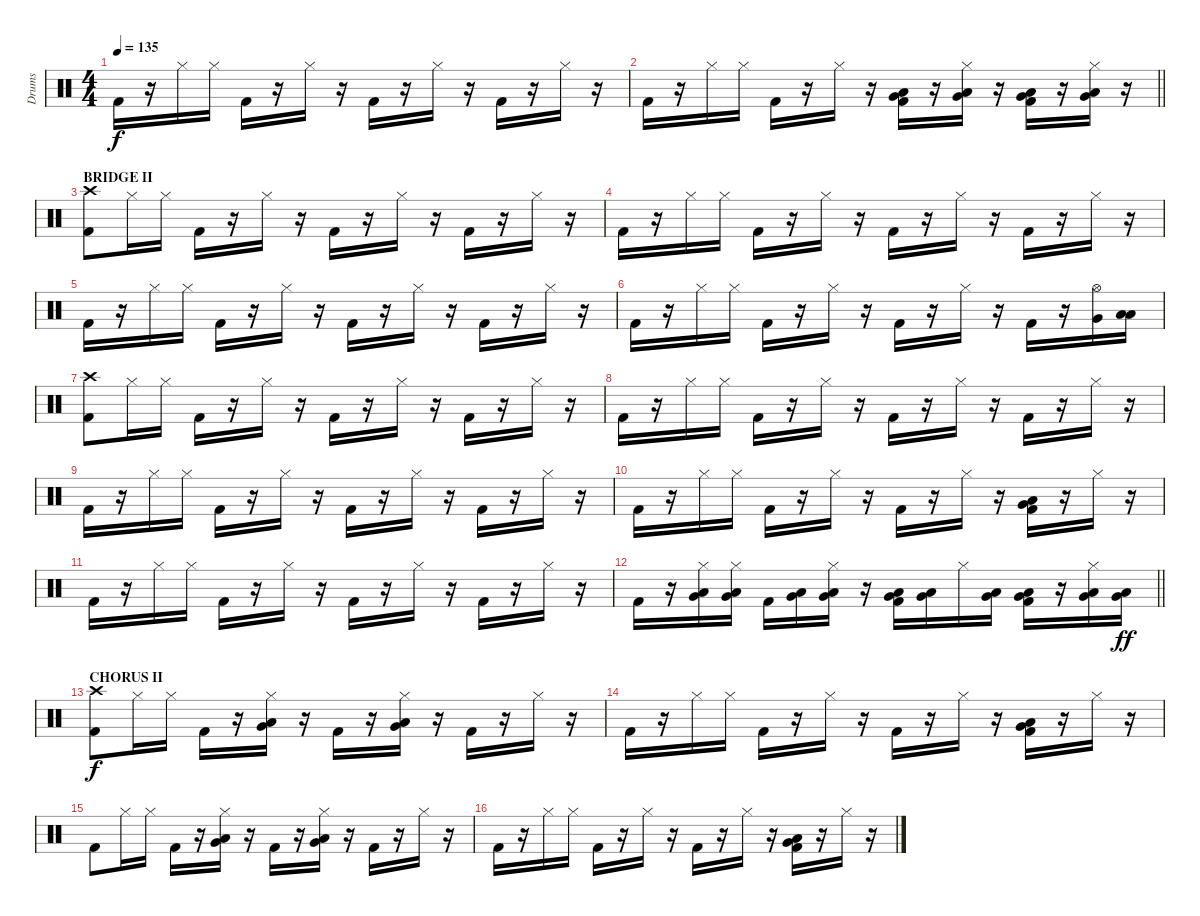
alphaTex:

\track ("Drums" "Drums") {instrument percussion}
\staff {score}
\articulation defaults
\ts (4 4)
\tempo 135
\clef neutral
\ks c "Kick (hit) 2".16{dy f}
r.16 "Hi-Hat (closed)".16 "Hi-Hat (closed)".16 "Kick (hit) 2".16 r.16 "Hi-Hat (closed)".16 r.16 "Kick (hit) 2".16 r.16 "Hi-Hat (closed)".16 r.16 "Kick (hit) 2".16 r.16 "Hi-Hat (closed)".16 r.16 |
\barLineRight lightlight "Kick (hit) 2".16
r.16 "Hi-Hat (closed)".16 "Hi-Hat (closed)".16 "Kick (hit) 2".16 r.16 "Hi-Hat (closed)".16 r.16 ("Kick (hit) 2" "Very Low Tom (hit)" "Low Tom (hit)").16 r.16 ("Hi-Hat (closed)" "Low Tom (hit)" "Very Low Tom (hit)").16 r.16 ("Kick (hit) 2" "Very Low Tom (hit)" "Low Tom (hit)").16 r.16 ("Hi-Hat (closed)" "Low Tom (hit)" "Very Low Tom (hit)").16 r.16 |
\section ("" "BRIDGE II")
("Kick (hit) 2" "Crash high (hit)").8 "Hi-Hat (closed)".16 "Hi-Hat (closed)".16 "Kick (hit) 2".16 r.16 "Hi-Hat (closed)".16 r.16 "Kick (hit) 2".16 r.16 "Hi-Hat (closed)".16 r.16 "Kick (hit) 2".16 r.16 "Hi-Hat (closed)".16 r.16 |
"Kick (hit) 2".16 r.16 "Hi-Hat (closed)".16 "Hi-Hat (closed)".16 "Kick (hit) 2".16 r.16 "Hi-Hat (closed)".16 r.16 "Kick (hit) 2".16 r.16 "Hi-Hat (closed)".16 r.16 "Kick (hit) 2".16 r.16 "Hi-Hat (closed)".16 r.16 |
"Kick (hit) 2".16 r.16 "Hi-Hat (closed)".16 "Hi-Hat (closed)".16 "Kick (hit) 2".16 r.16 "Hi-Hat (closed)".16 r.16 "Kick (hit) 2".16 r.16 "Hi-Hat (closed)".16 r.16 "Kick (hit) 2".16 r.16 "Hi-Hat (closed)".16 r.16 |
"Kick (hit) 2".16 r.16 "Hi-Hat (closed)".16 "Hi-Hat (closed)".16 "Kick (hit) 2".16 r.16 "Hi-Hat (closed)".16 r.16 "Kick (hit) 2".16 r.16 "Hi-Hat (closed)".16 r.16 "Kick (hit) 2".16 r.16 ("Hi-Hat (open)" "Very Low Tom (hit)").16 ("Low Tom (hit)" "Low Floor Tom (hit)").16 |
("Kick (hit) 2" "Crash high (hit)").8 "Hi-Hat (closed)".16 "Hi-Hat (closed)".16 "Kick (hit) 2".16 r.16 "Hi-Hat (closed)".16 r.16 "Kick (hit) 2".16 r.16 "Hi-Hat (closed)".16 r.16 "Kick (hit) 2".16 r.16 "Hi-Hat (closed)".16 r.16 |
"Kick (hit) 2".16 r.16 "Hi-Hat (closed)".16 "Hi-Hat (closed)".16 "Kick (hit) 2".16 r.16 "Hi-Hat (closed)".16 r.16 "Kick (hit) 2".16 r.16 "Hi-Hat (closed)".16 r.16 "Kick (hit) 2".16 r.16 "Hi-Hat (closed)".16 r.16 |
"Kick (hit) 2".16 r.16 "Hi-Hat (closed)".16 "Hi-Hat (closed)".16 "Kick (hit) 2".16 r.16 "Hi-Hat (closed)".16 r.16 "Kick (hit) 2".16 r.16 "Hi-Hat (closed)".16 r.16 "Kick (hit) 2".16 r.16 "Hi-Hat (closed)".16 r.16 |
"Kick (hit) 2".16 r.16 "Hi-Hat (closed)".16 "Hi-Hat (closed)".16 "Kick (hit) 2".16 r.16 "Hi-Hat (closed)".16 r.16 "Kick (hit) 2".16 r.16 "Hi-Hat (closed)".16 r.16 ("Kick (hit) 2" "Very Low Tom (hit)" "Low Tom (hit)").16 r.16 "Hi-Hat (closed)".16 r.16 |
"Kick (hit) 2".16 r.16 "Hi-Hat (closed)".16 "Hi-Hat (closed)".16 "Kick (hit) 2".16 r.16 "Hi-Hat (closed)".16 r.16 "Kick (hit) 2".16 r.16 "Hi-Hat (closed)".16 r.16 "Kick (hit) 2".16 r.16 "Hi-Hat (closed)".16 r.16 |
\barLineRight lightlight "Kick (hit) 2".16
r.16 ("Hi-Hat (closed)" "Low Tom (hit)" "Very Low Tom (hit)").16 ("Hi-Hat (closed)" "Low Tom (hit)" "Very Low Tom (hit)").16 "Kick (hit) 2".16 ("Low Tom (hit)" "Very Low Tom (hit)").16 ("Hi-Hat (closed)" "Low Tom (hit)" "Very Low Tom (hit)").16 r.16 ("Kick (hit) 2" "Low Tom (hit)" "Very Low Tom (hit)").16 ("Low Tom (hit)" "Very Low Tom (hit)").16 "Hi-Hat (closed)".16 ("Low Tom (hit)" "Very Low Tom (hit)").16 ("Kick (hit) 2" "Low Tom (hit)" "Very Low Tom (hit)").16 r.16 ("Hi-Hat (closed)" "Low Tom (hit)" "Very Low Tom (hit)").16 ("Low Tom (hit)" "Very Low Tom (hit)").16{dy ff} |
\section ("" "CHORUS II")
("Kick (hit) 2" "Crash high (hit)").8{dy f} "Hi-Hat (closed)".16 "Hi-Hat (closed)".16 "Kick (hit) 2".16 r.16 ("Hi-Hat (closed)" "Very Low Tom (hit)" "Low Floor Tom (hit)").16 r.16 "Kick (hit) 2".16 r.16 ("Hi-Hat (closed)" "Low Floor Tom (hit)" "Very Low Tom (hit)").16 r.16 "Kick (hit) 2".16 r.16 "Hi-Hat (closed)".16 r.16 |
"Kick (hit) 2".16 r.16 "Hi-Hat (closed)".16 "Hi-Hat (closed)".16 "Kick (hit) 2".16 r.16 "Hi-Hat (closed)".16 r.16 "Kick (hit) 2".16 r.16 "Hi-Hat (closed)".16 r.16 ("Kick (hit) 2" "Low Floor Tom (hit)" "Very Low Tom (hit)").16 r.16 "Hi-Hat (closed)".16 r.16 |
"Kick (hit) 2".8 "Hi-Hat (closed)".16 "Hi-Hat (closed)".16 "Kick (hit) 2".16 r.16 ("Hi-Hat (closed)" "Very Low Tom (hit)" "Low Floor Tom (hit)").16 r.16 "Kick (hit) 2".16 r.16 ("Hi-Hat (closed)" "Low Floor Tom (hit)" "Very Low Tom (hit)").16 r.16 "Kick (hit) 2".16 r.16 "Hi-Hat (closed)".16 r.16 |
"Kick (hit) 2".16 r.16 "Hi-Hat (closed)".16 "Hi-Hat (closed)".16 "Kick (hit) 2".16 r.16 "Hi-Hat (closed)".16 r.16 "Kick (hit) 2".16 r.16 "Hi-Hat (closed)".16 r.16 ("Kick (hit) 2" "Low Floor Tom (hit)" "Very Low Tom (hit)").16 r.16 "Hi-Hat (closed)".16 r.16
